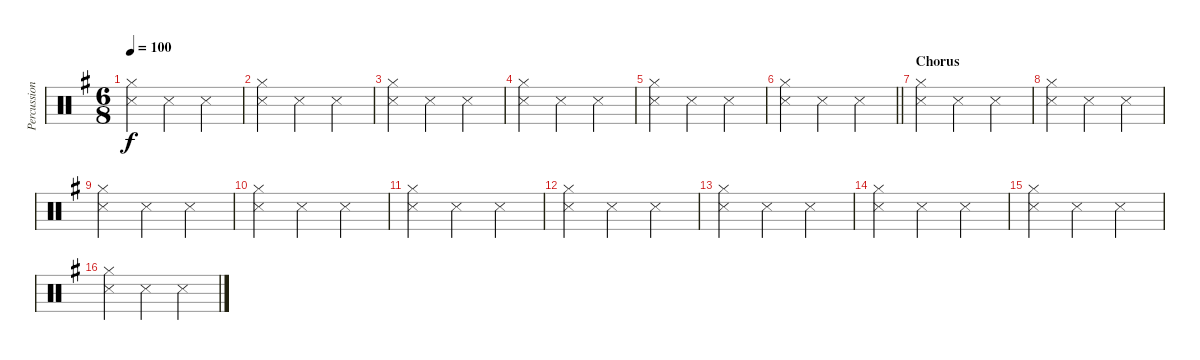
\track ("Percussion" "Percussion") {mute instrument percussion}
\staff {score}
\articulation defaults
\ts (6 8)
\tempo 100
\clef neutral
\ks g
("Hi-Hat (closed)" "Snare (side stick) 3").4{dy f} "Snare (side stick) 3".4 "Snare (side stick) 3".4 |
("Hi-Hat (closed)" "Snare (side stick) 3").4 "Snare (side stick) 3".4 "Snare (side stick) 3".4 |
("Hi-Hat (closed)" "Snare (side stick) 3").4 "Snare (side stick) 3".4 "Snare (side stick) 3".4 |
("Hi-Hat (closed)" "Snare (side stick) 3").4 "Snare (side stick) 3".4 "Snare (side stick) 3".4 |
("Hi-Hat (closed)" "Snare (side stick) 3").4 "Snare (side stick) 3".4 "Snare (side stick) 3".4 |
\barLineRight lightlight
("Hi-Hat (closed)" "Snare (side stick) 3").4 "Snare (side stick) 3".4 "Snare (side stick) 3".4 |
\section ("" "Chorus")
("Hi-Hat (closed)" "Snare (side stick) 3").4 "Snare (side stick) 3".4 "Snare (side stick) 3".4 |
("Hi-Hat (closed)" "Snare (side stick) 3").4 "Snare (side stick) 3".4 "Snare (side stick) 3".4 |
("Hi-Hat (closed)" "Snare (side stick) 3").4 "Snare (side stick) 3".4 "Snare (side stick) 3".4 |
("Hi-Hat (closed)" "Snare (side stick) 3").4 "Snare (side stick) 3".4 "Snare (side stick) 3".4 |
("Hi-Hat (closed)" "Snare (side stick) 3").4 "Snare (side stick) 3".4 "Snare (side stick) 3".4 |
("Hi-Hat (closed)" "Snare (side stick) 3").4 "Snare (side stick) 3".4 "Snare (side stick) 3".4 |
("Hi-Hat (closed)" "Snare (side stick) 3").4 "Snare (side stick) 3".4 "Snare (side stick) 3".4 |
("Hi-Hat (closed)" "Snare (side stick) 3").4 "Snare (side stick) 3".4 "Snare (side stick) 3".4 |
("Hi-Hat (closed)" "Snare (side stick) 3").4 "Snare (side stick) 3".4 "Snare (side stick) 3".4 |
("Hi-Hat (closed)" "Snare (side stick) 3").4 "Snare (side stick) 3".4 "Snare (side stick) 3".4
